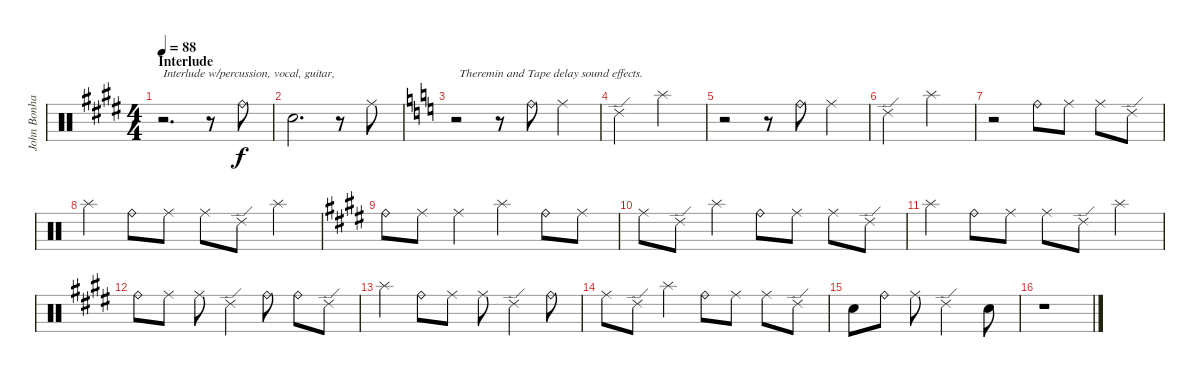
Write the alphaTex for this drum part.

\track ("John Bonham Percusive Kit" "John Bonha") {instrument percussion}
\staff {score}
\articulation defaults
\ts (4 4)
\section ("" "Interlude")
\tempo 88
\clef neutral
\ks e
r.2{d txt "Interlude w/percussion, vocal, guitar," dy f volume 8} r.8 "Ride (bell)".8 |
"Snare (hit)".2{d} r.8 "Ride (middle)".8 |
\ks c
r.2{txt " Theremin and Tape delay sound effects."} r.8 "Ride (bell)".8 "Ride (middle)".4 |
"Ride (edge) 2".2 "Splash (hit)".2 |
r.2 r.8 "Ride (bell)".8 "Ride (middle)".4 |
"Ride (edge) 2".2 "Splash (hit)".2 |
r.2 "Ride (bell)".8 "Ride (middle)".8 "Ride (middle)".8 "Ride (edge) 2".8 |
"Splash (hit)".4 "Ride (bell)".8 "Ride (middle)".8 "Ride (middle)".8 "Ride (edge) 2".8 "Splash (hit)".4 |
\ks e "Ride (bell)".8 "Ride (middle)".8 "Ride (middle)".4 "Splash (hit)".4 "Ride (bell)".8 "Ride (middle)".8
|
"Ride (middle)".8 "Ride (edge) 2".8 "Splash (hit)".4 "Ride (bell)".8 "Ride (middle)".8 "Ride (middle)".8 "Ride (edge) 2".8 |
"Splash (hit)".4 "Ride (bell)".8 "Ride (middle)".8 "Ride (middle)".8 "Ride (edge) 2".8 "Splash (hit)".4 |
"Ride (bell)".8 "Ride (middle)".8 "Ride (middle)".8 "Ride (edge) 2".4 "Ride (bell)".8 "Ride (bell)".8 "Ride (edge) 2".8 |
"Splash (hit)".4 "Ride (bell)".8 "Ride (middle)".8 "Ride (middle)".8 "Ride (edge) 2".4 "Ride (bell)".8 |
"Ride (middle)".8 "Ride (edge) 2".8 "Splash (hit)".4 "Ride (bell)".8 "Ride (middle)".8 "Ride (middle)".8 "Ride (edge) 2".8 |
"Snare (hit)".8 "Ride (bell)".8 "Ride (middle)".8 "Ride (edge) 2".2 "Snare (hit)".8 |
r.1
